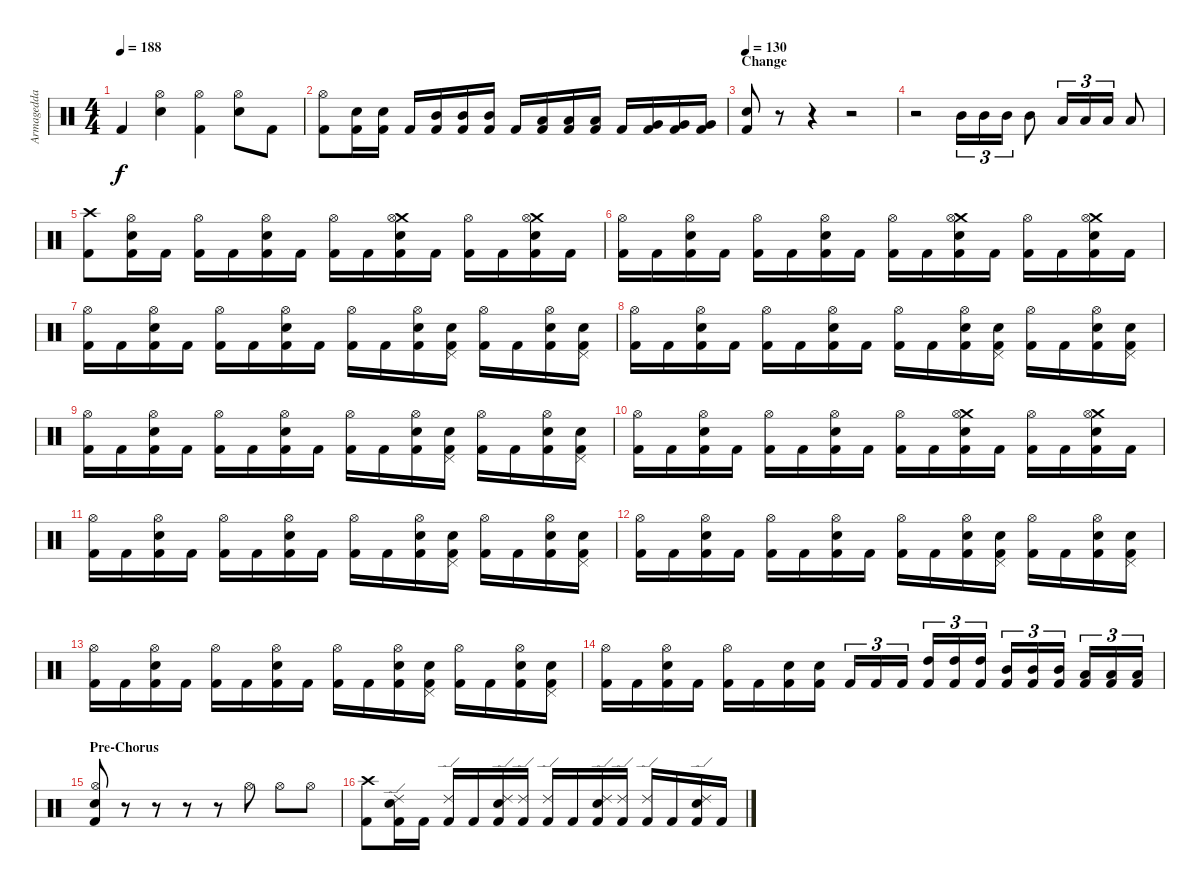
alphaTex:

\track ("Armagedda" "Armagedda") {instrument percussion}
\staff {score}
\articulation defaults
\ts (4 4)
\tempo 188
\clef neutral
\ks c "Kick (hit) 2".4{dy f}
("Hi-Hat (open)" "Electric Snare (hit)").4 ("Hi-Hat (open)" "Kick (hit) 2").4 ("Hi-Hat (open)" "Electric Snare (hit)").8 "Kick (hit) 2".8 |
("Hi-Hat (open)" "Kick (hit) 2").8 ("Electric Snare (hit)" "Kick (hit) 2").16 ("Electric Snare (hit)" "Kick (hit) 2").16 "Kick (hit) 2".16 ("Mid Tom (hit)" "Kick (hit) 2").16 ("Mid Tom (hit)" "Kick (hit) 2").16 ("Mid Tom (hit)" "Kick (hit) 2").16 "Kick (hit) 2".16 ("Low Tom (hit)" "Kick (hit) 2").16 ("Low Tom (hit)" "Kick (hit) 2").16 ("Low Tom (hit)" "Kick (hit) 2").16 "Kick (hit) 2".16 ("Very Low Tom (hit)" "Kick (hit) 2").16 ("Very Low Tom (hit)" "Kick (hit) 2").16 ("Very Low Tom (hit)" "Kick (hit) 2").16 |
\section ("" "Change")
\tempo 130
("Electric Snare (hit)" "Kick (hit) 2").8 r.8 r.4 r.2 |
r.2 "Mid Tom (hit)".16{tu (3 2)} "Mid Tom (hit)".16{tu (3 2)} "Mid Tom (hit)".16{tu (3 2)} "Mid Tom (hit)".8 "Low Tom (hit)".16{tu (3 2)} "Low Tom (hit)".16{tu (3 2)} "Low Tom (hit)".16{tu (3 2)} "Low Tom (hit)".8 |
("Crash high (hit)" "Kick (hit) 2").8 ("Hi-Hat (open)" "Electric Snare (hit)" "Kick (hit) 2").16 "Kick (hit) 2".16 ("Hi-Hat (open)" "Kick (hit) 2").16 "Kick (hit) 2".16 ("Hi-Hat (open)" "Electric Snare (hit)" "Kick (hit) 2").16 "Kick (hit) 2".16 ("Hi-Hat (open)" "Kick (hit) 2").16 "Kick (hit) 2".16 ("Crash medium (hit)" "Hi-Hat (open)" "Electric Snare (hit)" "Kick (hit) 2").16 "Kick (hit) 2".16 ("Hi-Hat (open)" "Kick (hit) 2").16 "Kick (hit) 2".16 ("Crash medium (hit)" "Hi-Hat (open)" "Electric Snare (hit)" "Kick (hit) 2").16 "Kick (hit) 2".16 |
("Hi-Hat (open)" "Kick (hit) 2").16 "Kick (hit) 2".16 ("Hi-Hat (open)" "Electric Snare (hit)" "Kick (hit) 2").16 "Kick (hit) 2".16 ("Hi-Hat (open)" "Kick (hit) 2").16 "Kick (hit) 2".16 ("Hi-Hat (open)" "Electric Snare (hit)" "Kick (hit) 2").16 "Kick (hit) 2".16 ("Hi-Hat (open)" "Kick (hit) 2").16 "Kick (hit) 2".16 ("Crash medium (hit)" "Hi-Hat (open)" "Electric Snare (hit)" "Kick (hit) 2").16 "Kick (hit) 2".16 ("Hi-Hat (open)" "Kick (hit) 2").16 "Kick (hit) 2".16 ("Crash medium (hit)" "Hi-Hat (open)" "Electric Snare (hit)" "Kick (hit) 2").16 "Kick (hit) 2".16 |
("Hi-Hat (open)" "Kick (hit) 2").16 "Kick (hit) 2".16 ("Hi-Hat (open)" "Electric Snare (hit)" "Kick (hit) 2").16 "Kick (hit) 2".16 ("Hi-Hat (open)" "Kick (hit) 2").16 "Kick (hit) 2".16 ("Hi-Hat (open)" "Electric Snare (hit)" "Kick (hit) 2").16 "Kick (hit) 2".16 ("Hi-Hat (open)" "Kick (hit) 2").16 "Kick (hit) 2".16 ("Hi-Hat (open)" "Electric Snare (hit)" "Kick (hit) 2").16 ("Pedal Hi-Hat (hit)" "Electric Snare (hit)" "Kick (hit) 2").16 ("Hi-Hat (open)" "Kick (hit) 2").16 "Kick (hit) 2".16 ("Hi-Hat (open)" "Electric Snare (hit)" "Kick (hit) 2").16 ("Pedal Hi-Hat (hit)" "Electric Snare (hit)" "Kick (hit) 2").16 |
("Hi-Hat (open)" "Kick (hit) 2").16 "Kick (hit) 2".16 ("Hi-Hat (open)" "Electric Snare (hit)" "Kick (hit) 2").16 "Kick (hit) 2".16 ("Hi-Hat (open)" "Kick (hit) 2").16 "Kick (hit) 2".16 ("Hi-Hat (open)" "Electric Snare (hit)" "Kick (hit) 2").16 "Kick (hit) 2".16 ("Hi-Hat (open)" "Kick (hit) 2").16 "Kick (hit) 2".16 ("Hi-Hat (open)" "Electric Snare (hit)" "Kick (hit) 2").16 ("Pedal Hi-Hat (hit)" "Electric Snare (hit)" "Kick (hit) 2").16 ("Hi-Hat (open)" "Kick (hit) 2").16 "Kick (hit) 2".16 ("Hi-Hat (open)" "Electric Snare (hit)" "Kick (hit) 2").16 ("Pedal Hi-Hat (hit)" "Electric Snare (hit)" "Kick (hit) 2").16 |
("Hi-Hat (open)" "Kick (hit) 2").16 "Kick (hit) 2".16 ("Hi-Hat (open)" "Electric Snare (hit)" "Kick (hit) 2").16 "Kick (hit) 2".16 ("Hi-Hat (open)" "Kick (hit) 2").16 "Kick (hit) 2".16 ("Hi-Hat (open)" "Electric Snare (hit)" "Kick (hit) 2").16 "Kick (hit) 2".16 ("Hi-Hat (open)" "Kick (hit) 2").16 "Kick (hit) 2".16 ("Hi-Hat (open)" "Electric Snare (hit)" "Kick (hit) 2").16 ("Pedal Hi-Hat (hit)" "Electric Snare (hit)" "Kick (hit) 2").16 ("Hi-Hat (open)" "Kick (hit) 2").16 "Kick (hit) 2".16 ("Hi-Hat (open)" "Electric Snare (hit)" "Kick (hit) 2").16 ("Pedal Hi-Hat (hit)" "Electric Snare (hit)" "Kick (hit) 2").16 |
("Hi-Hat (open)" "Kick (hit) 2").16 "Kick (hit) 2".16 ("Hi-Hat (open)" "Electric Snare (hit)" "Kick (hit) 2").16 "Kick (hit) 2".16 ("Hi-Hat (open)" "Kick (hit) 2").16 "Kick (hit) 2".16 ("Hi-Hat (open)" "Electric Snare (hit)" "Kick (hit) 2").16 "Kick (hit) 2".16 ("Hi-Hat (open)" "Kick (hit) 2").16 "Kick (hit) 2".16 ("Crash medium (hit)" "Hi-Hat (open)" "Electric Snare (hit)" "Kick (hit) 2").16 "Kick (hit) 2".16 ("Hi-Hat (open)" "Kick (hit) 2").16 "Kick (hit) 2".16 ("Crash medium (hit)" "Hi-Hat (open)" "Electric Snare (hit)" "Kick (hit) 2").16 "Kick (hit) 2".16 |
("Hi-Hat (open)" "Kick (hit) 2").16 "Kick (hit) 2".16 ("Hi-Hat (open)" "Electric Snare (hit)" "Kick (hit) 2").16 "Kick (hit) 2".16 ("Hi-Hat (open)" "Kick (hit) 2").16 "Kick (hit) 2".16 ("Hi-Hat (open)" "Electric Snare (hit)" "Kick (hit) 2").16 "Kick (hit) 2".16 ("Hi-Hat (open)" "Kick (hit) 2").16 "Kick (hit) 2".16 ("Hi-Hat (open)" "Electric Snare (hit)" "Kick (hit) 2").16 ("Pedal Hi-Hat (hit)" "Electric Snare (hit)" "Kick (hit) 2").16 ("Hi-Hat (open)" "Kick (hit) 2").16 "Kick (hit) 2".16 ("Hi-Hat (open)" "Electric Snare (hit)" "Kick (hit) 2").16 ("Pedal Hi-Hat (hit)" "Electric Snare (hit)" "Kick (hit) 2").16 |
("Hi-Hat (open)" "Kick (hit) 2").16 "Kick (hit) 2".16 ("Hi-Hat (open)" "Electric Snare (hit)" "Kick (hit) 2").16 "Kick (hit) 2".16 ("Hi-Hat (open)" "Kick (hit) 2").16 "Kick (hit) 2".16 ("Hi-Hat (open)" "Electric Snare (hit)" "Kick (hit) 2").16 "Kick (hit) 2".16 ("Hi-Hat (open)" "Kick (hit) 2").16 "Kick (hit) 2".16 ("Hi-Hat (open)" "Electric Snare (hit)" "Kick (hit) 2").16 ("Pedal Hi-Hat (hit)" "Electric Snare (hit)" "Kick (hit) 2").16 ("Hi-Hat (open)" "Kick (hit) 2").16 "Kick (hit) 2".16 ("Hi-Hat (open)" "Electric Snare (hit)" "Kick (hit) 2").16 ("Pedal Hi-Hat (hit)" "Electric Snare (hit)" "Kick (hit) 2").16 |
("Hi-Hat (open)" "Kick (hit) 2").16 "Kick (hit) 2".16 ("Hi-Hat (open)" "Electric Snare (hit)" "Kick (hit) 2").16 "Kick (hit) 2".16 ("Hi-Hat (open)" "Kick (hit) 2").16 "Kick (hit) 2".16 ("Hi-Hat (open)" "Electric Snare (hit)" "Kick (hit) 2").16 "Kick (hit) 2".16 ("Hi-Hat (open)" "Kick (hit) 2").16 "Kick (hit) 2".16 ("Hi-Hat (open)" "Electric Snare (hit)" "Kick (hit) 2").16 ("Pedal Hi-Hat (hit)" "Electric Snare (hit)" "Kick (hit) 2").16 ("Hi-Hat (open)" "Kick (hit) 2").16 "Kick (hit) 2".16 ("Hi-Hat (open)" "Electric Snare (hit)" "Kick (hit) 2").16 ("Pedal Hi-Hat (hit)" "Electric Snare (hit)" "Kick (hit) 2").16 |
("Hi-Hat (open)" "Kick (hit) 2").16 "Kick (hit) 2".16 ("Hi-Hat (open)" "Electric Snare (hit)" "Kick (hit) 2").16 "Kick (hit) 2".16 ("Hi-Hat (open)" "Kick (hit) 2").16 "Kick (hit) 2".16 ("Electric Snare (hit)" "Kick (hit) 2").16 ("Electric Snare (hit)" "Kick (hit) 2").16 "Kick (hit) 2".16{tu (3 2)} "Kick (hit) 2".16{tu (3 2)} "Kick (hit) 2".16{tu (3 2)} ("High Tom (hit)" "Kick (hit) 2").16{tu (3 2)} ("High Tom (hit)" "Kick (hit) 2").16{tu (3 2)} ("High Tom (hit)" "Kick (hit) 2").16{tu (3 2)} ("Mid Tom (hit)" "Kick (hit) 2").16{tu (3 2)} ("Mid Tom (hit)" "Kick (hit) 2").16{tu (3 2)} ("Mid Tom (hit)" "Kick (hit) 2").16{tu (3 2)} ("Low Tom (hit)" "Kick (hit) 2").16{tu (3 2)} ("Low Tom (hit)" "Kick (hit) 2").16{tu (3 2)} ("Low Tom (hit)" "Kick (hit) 2").16{tu (3 2)} |
\section ("" "Pre-Chorus")
("Hi-Hat (open)" "Electric Snare (hit)" "Kick (hit) 2").8 r.8 r.8 r.8 r.8 "Hi-Hat (open)".8 "Hi-Hat (open)".8 "Hi-Hat (open)".8 |
("Crash high (hit)" "Kick (hit) 2").8 ("Ride (edge) 2" "Electric Snare (hit)" "Kick (hit) 2").16 "Kick (hit) 2".16 ("Ride (edge) 2" "Kick (hit) 2").16 "Kick (hit) 2".16 ("Ride (edge) 2" "Electric Snare (hit)" "Kick (hit) 2").16 ("Ride (edge) 2" "Kick (hit) 2").16 ("Ride (edge) 2" "Kick (hit) 2").16 "Kick (hit) 2".16 ("Ride (edge) 2" "Electric Snare (hit)" "Kick (hit) 2").16 ("Ride (edge) 2" "Kick (hit) 2").16 ("Ride (edge) 2" "Kick (hit) 2").16 "Kick (hit) 2".16 ("Ride (edge) 2" "Electric Snare (hit)" "Kick (hit) 2").16 "Kick (hit) 2".16
